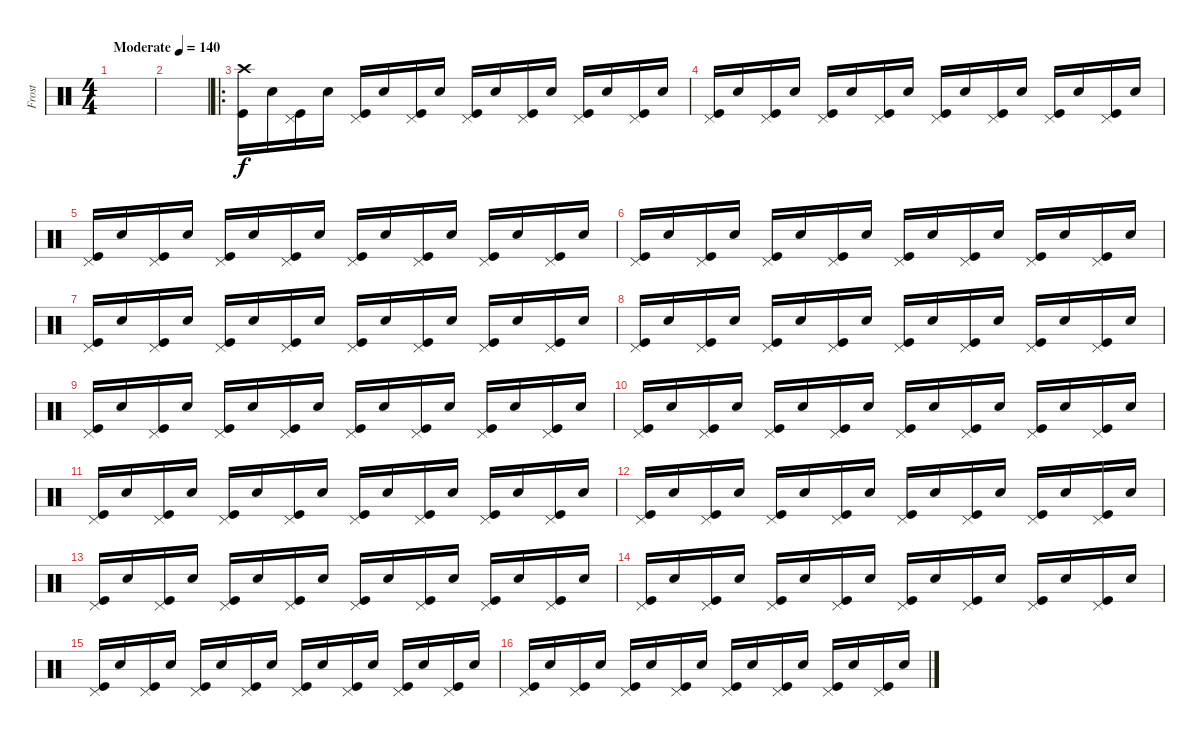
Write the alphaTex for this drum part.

\track ("Frost" "Frost") {instrument percussion}
\staff {score}
\articulation defaults
\ts (4 4)
\tempo (140 "Moderate")
\clef neutral
\ks c
|
|
\ro
("Crash high (hit)" "Kick (hit)").16 "Electric Snare (hit)".16 ("Pedal Hi-Hat (hit)" "Kick (hit)").16 "Electric Snare (hit)".16 ("Pedal Hi-Hat (hit)" "Kick (hit)").16 "Electric Snare (hit)".16 ("Pedal Hi-Hat (hit)" "Kick (hit)").16 "Electric Snare (hit)".16 ("Pedal Hi-Hat (hit)" "Kick (hit)").16 "Electric Snare (hit)".16 ("Pedal Hi-Hat (hit)" "Kick (hit)").16 "Electric Snare (hit)".16 ("Pedal Hi-Hat (hit)" "Kick (hit)").16 "Electric Snare (hit)".16 ("Pedal Hi-Hat (hit)" "Kick (hit)").16 "Electric Snare (hit)".16 |
("Pedal Hi-Hat (hit)" "Kick (hit)").16 "Electric Snare (hit)".16 ("Pedal Hi-Hat (hit)" "Kick (hit)").16 "Electric Snare (hit)".16 ("Pedal Hi-Hat (hit)" "Kick (hit)").16 "Electric Snare (hit)".16 ("Pedal Hi-Hat (hit)" "Kick (hit)").16 "Electric Snare (hit)".16 ("Pedal Hi-Hat (hit)" "Kick (hit)").16 "Electric Snare (hit)".16 ("Pedal Hi-Hat (hit)" "Kick (hit)").16 "Electric Snare (hit)".16 ("Pedal Hi-Hat (hit)" "Kick (hit)").16 "Electric Snare (hit)".16 ("Pedal Hi-Hat (hit)" "Kick (hit)").16 "Electric Snare (hit)".16 |
("Pedal Hi-Hat (hit)" "Kick (hit)").16 "Electric Snare (hit)".16 ("Pedal Hi-Hat (hit)" "Kick (hit)").16 "Electric Snare (hit)".16 ("Pedal Hi-Hat (hit)" "Kick (hit)").16 "Electric Snare (hit)".16 ("Pedal Hi-Hat (hit)" "Kick (hit)").16 "Electric Snare (hit)".16 ("Pedal Hi-Hat (hit)" "Kick (hit)").16 "Electric Snare (hit)".16 ("Pedal Hi-Hat (hit)" "Kick (hit)").16 "Electric Snare (hit)".16 ("Pedal Hi-Hat (hit)" "Kick (hit)").16 "Electric Snare (hit)".16 ("Pedal Hi-Hat (hit)" "Kick (hit)").16 "Electric Snare (hit)".16 |
("Pedal Hi-Hat (hit)" "Kick (hit)").16 "Electric Snare (hit)".16 ("Pedal Hi-Hat (hit)" "Kick (hit)").16 "Electric Snare (hit)".16 ("Pedal Hi-Hat (hit)" "Kick (hit)").16 "Electric Snare (hit)".16 ("Pedal Hi-Hat (hit)" "Kick (hit)").16 "Electric Snare (hit)".16 ("Pedal Hi-Hat (hit)" "Kick (hit)").16 "Electric Snare (hit)".16 ("Pedal Hi-Hat (hit)" "Kick (hit)").16 "Electric Snare (hit)".16 ("Pedal Hi-Hat (hit)" "Kick (hit)").16 "Electric Snare (hit)".16 ("Pedal Hi-Hat (hit)" "Kick (hit)").16 "Electric Snare (hit)".16 |
("Pedal Hi-Hat (hit)" "Kick (hit)").16 "Electric Snare (hit)".16 ("Pedal Hi-Hat (hit)" "Kick (hit)").16 "Electric Snare (hit)".16 ("Pedal Hi-Hat (hit)" "Kick (hit)").16 "Electric Snare (hit)".16 ("Pedal Hi-Hat (hit)" "Kick (hit)").16 "Electric Snare (hit)".16 ("Pedal Hi-Hat (hit)" "Kick (hit)").16 "Electric Snare (hit)".16 ("Pedal Hi-Hat (hit)" "Kick (hit)").16 "Electric Snare (hit)".16 ("Pedal Hi-Hat (hit)" "Kick (hit)").16 "Electric Snare (hit)".16 ("Pedal Hi-Hat (hit)" "Kick (hit)").16 "Electric Snare (hit)".16 |
("Pedal Hi-Hat (hit)" "Kick (hit)").16 "Electric Snare (hit)".16 ("Pedal Hi-Hat (hit)" "Kick (hit)").16 "Electric Snare (hit)".16 ("Pedal Hi-Hat (hit)" "Kick (hit)").16 "Electric Snare (hit)".16 ("Pedal Hi-Hat (hit)" "Kick (hit)").16 "Electric Snare (hit)".16 ("Pedal Hi-Hat (hit)" "Kick (hit)").16 "Electric Snare (hit)".16 ("Pedal Hi-Hat (hit)" "Kick (hit)").16 "Electric Snare (hit)".16 ("Pedal Hi-Hat (hit)" "Kick (hit)").16 "Electric Snare (hit)".16 ("Pedal Hi-Hat (hit)" "Kick (hit)").16 "Electric Snare (hit)".16 |
("Pedal Hi-Hat (hit)" "Kick (hit)").16 "Electric Snare (hit)".16 ("Pedal Hi-Hat (hit)" "Kick (hit)").16 "Electric Snare (hit)".16 ("Pedal Hi-Hat (hit)" "Kick (hit)").16 "Electric Snare (hit)".16 ("Pedal Hi-Hat (hit)" "Kick (hit)").16 "Electric Snare (hit)".16 ("Pedal Hi-Hat (hit)" "Kick (hit)").16 "Electric Snare (hit)".16 ("Pedal Hi-Hat (hit)" "Kick (hit)").16 "Electric Snare (hit)".16 ("Pedal Hi-Hat (hit)" "Kick (hit)").16 "Electric Snare (hit)".16 ("Pedal Hi-Hat (hit)" "Kick (hit)").16 "Electric Snare (hit)".16 |
("Pedal Hi-Hat (hit)" "Kick (hit)").16 "Electric Snare (hit)".16 ("Pedal Hi-Hat (hit)" "Kick (hit)").16 "Electric Snare (hit)".16 ("Pedal Hi-Hat (hit)" "Kick (hit)").16 "Electric Snare (hit)".16 ("Pedal Hi-Hat (hit)" "Kick (hit)").16 "Electric Snare (hit)".16 ("Pedal Hi-Hat (hit)" "Kick (hit)").16 "Electric Snare (hit)".16 ("Pedal Hi-Hat (hit)" "Kick (hit)").16 "Electric Snare (hit)".16 ("Pedal Hi-Hat (hit)" "Kick (hit)").16 "Electric Snare (hit)".16 ("Pedal Hi-Hat (hit)" "Kick (hit)").16 "Electric Snare (hit)".16 |
("Pedal Hi-Hat (hit)" "Kick (hit)").16 "Electric Snare (hit)".16 ("Pedal Hi-Hat (hit)" "Kick (hit)").16 "Electric Snare (hit)".16 ("Pedal Hi-Hat (hit)" "Kick (hit)").16 "Electric Snare (hit)".16 ("Pedal Hi-Hat (hit)" "Kick (hit)").16 "Electric Snare (hit)".16 ("Pedal Hi-Hat (hit)" "Kick (hit)").16 "Electric Snare (hit)".16 ("Pedal Hi-Hat (hit)" "Kick (hit)").16 "Electric Snare (hit)".16 ("Pedal Hi-Hat (hit)" "Kick (hit)").16 "Electric Snare (hit)".16 ("Pedal Hi-Hat (hit)" "Kick (hit)").16 "Electric Snare (hit)".16 |
("Pedal Hi-Hat (hit)" "Kick (hit)").16 "Electric Snare (hit)".16 ("Pedal Hi-Hat (hit)" "Kick (hit)").16 "Electric Snare (hit)".16 ("Pedal Hi-Hat (hit)" "Kick (hit)").16 "Electric Snare (hit)".16 ("Pedal Hi-Hat (hit)" "Kick (hit)").16 "Electric Snare (hit)".16 ("Pedal Hi-Hat (hit)" "Kick (hit)").16 "Electric Snare (hit)".16 ("Pedal Hi-Hat (hit)" "Kick (hit)").16 "Electric Snare (hit)".16 ("Pedal Hi-Hat (hit)" "Kick (hit)").16 "Electric Snare (hit)".16 ("Pedal Hi-Hat (hit)" "Kick (hit)").16 "Electric Snare (hit)".16 |
("Pedal Hi-Hat (hit)" "Kick (hit)").16 "Electric Snare (hit)".16 ("Pedal Hi-Hat (hit)" "Kick (hit)").16 "Electric Snare (hit)".16 ("Pedal Hi-Hat (hit)" "Kick (hit)").16 "Electric Snare (hit)".16 ("Pedal Hi-Hat (hit)" "Kick (hit)").16 "Electric Snare (hit)".16 ("Pedal Hi-Hat (hit)" "Kick (hit)").16 "Electric Snare (hit)".16 ("Pedal Hi-Hat (hit)" "Kick (hit)").16 "Electric Snare (hit)".16 ("Pedal Hi-Hat (hit)" "Kick (hit)").16 "Electric Snare (hit)".16 ("Pedal Hi-Hat (hit)" "Kick (hit)").16 "Electric Snare (hit)".16 |
("Pedal Hi-Hat (hit)" "Kick (hit)").16 "Electric Snare (hit)".16 ("Pedal Hi-Hat (hit)" "Kick (hit)").16 "Electric Snare (hit)".16 ("Pedal Hi-Hat (hit)" "Kick (hit)").16 "Electric Snare (hit)".16 ("Pedal Hi-Hat (hit)" "Kick (hit)").16 "Electric Snare (hit)".16 ("Pedal Hi-Hat (hit)" "Kick (hit)").16 "Electric Snare (hit)".16 ("Pedal Hi-Hat (hit)" "Kick (hit)").16 "Electric Snare (hit)".16 ("Pedal Hi-Hat (hit)" "Kick (hit)").16 "Electric Snare (hit)".16 ("Pedal Hi-Hat (hit)" "Kick (hit)").16 "Electric Snare (hit)".16 |
("Pedal Hi-Hat (hit)" "Kick (hit)").16 "Electric Snare (hit)".16 ("Pedal Hi-Hat (hit)" "Kick (hit)").16 "Electric Snare (hit)".16 ("Pedal Hi-Hat (hit)" "Kick (hit)").16 "Electric Snare (hit)".16 ("Pedal Hi-Hat (hit)" "Kick (hit)").16 "Electric Snare (hit)".16 ("Pedal Hi-Hat (hit)" "Kick (hit)").16 "Electric Snare (hit)".16 ("Pedal Hi-Hat (hit)" "Kick (hit)").16 "Electric Snare (hit)".16 ("Pedal Hi-Hat (hit)" "Kick (hit)").16 "Electric Snare (hit)".16 ("Pedal Hi-Hat (hit)" "Kick (hit)").16 "Electric Snare (hit)".16 |
("Pedal Hi-Hat (hit)" "Kick (hit)").16 "Electric Snare (hit)".16 ("Pedal Hi-Hat (hit)" "Kick (hit)").16 "Electric Snare (hit)".16 ("Pedal Hi-Hat (hit)" "Kick (hit)").16 "Electric Snare (hit)".16 ("Pedal Hi-Hat (hit)" "Kick (hit)").16 "Electric Snare (hit)".16 ("Pedal Hi-Hat (hit)" "Kick (hit)").16 "Electric Snare (hit)".16 ("Pedal Hi-Hat (hit)" "Kick (hit)").16 "Electric Snare (hit)".16 ("Pedal Hi-Hat (hit)" "Kick (hit)").16 "Electric Snare (hit)".16 ("Pedal Hi-Hat (hit)" "Kick (hit)").16 "Electric Snare (hit)".16
